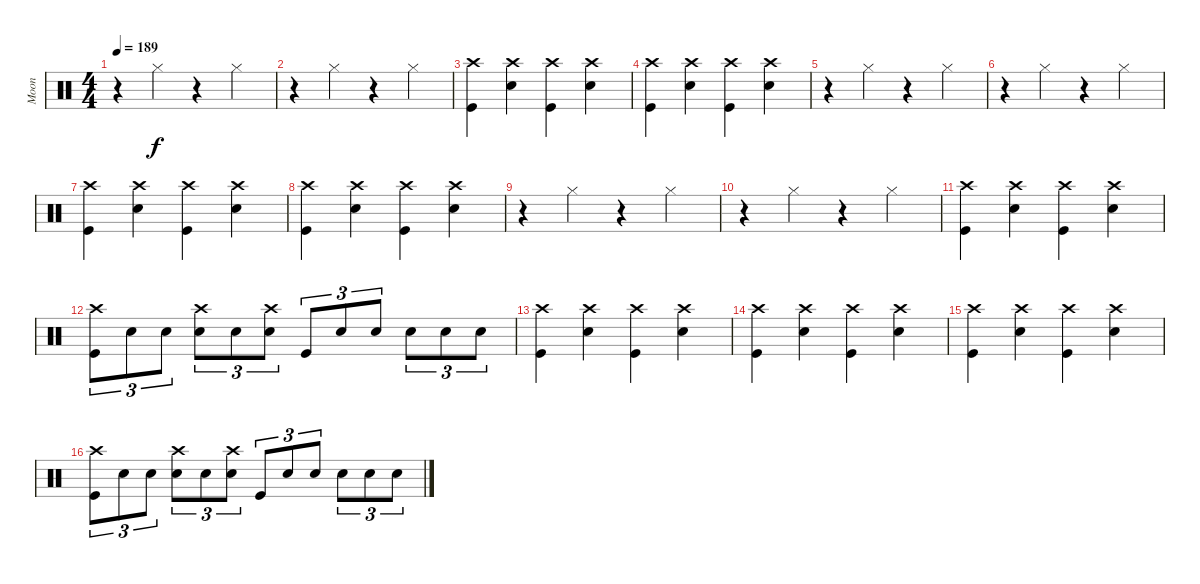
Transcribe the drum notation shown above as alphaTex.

\track ("Moon" "Moon") {instrument percussion}
\staff {score}
\articulation defaults
\ts (4 4)
\tempo 189
\clef neutral
\ks c
r.4{dy f} "Hi-Hat (closed)".4 r.4 "Hi-Hat (closed)".4 |
r.4 "Hi-Hat (closed)".4 r.4 "Hi-Hat (closed)".4 |
("Crash high (hit)" "Kick (hit)").4 ("Crash high (hit)" "Snare (hit) 2").4 ("Crash high (hit)" "Kick (hit)").4 ("Crash high (hit)" "Snare (hit) 2").4 |
("Crash high (hit)" "Kick (hit)").4 ("Crash high (hit)" "Snare (hit) 2").4 ("Crash high (hit)" "Kick (hit)").4 ("Crash high (hit)" "Snare (hit) 2").4 |
r.4 "Hi-Hat (closed)".4 r.4 "Hi-Hat (closed)".4 |
r.4 "Hi-Hat (closed)".4 r.4 "Hi-Hat (closed)".4 |
("Crash high (hit)" "Kick (hit)").4 ("Crash high (hit)" "Snare (hit) 2").4 ("Crash high (hit)" "Kick (hit)").4 ("Crash high (hit)" "Snare (hit) 2").4 |
("Crash high (hit)" "Kick (hit)").4 ("Crash high (hit)" "Snare (hit) 2").4 ("Crash high (hit)" "Kick (hit)").4 ("Crash high (hit)" "Snare (hit) 2").4 |
r.4 "Hi-Hat (closed)".4 r.4 "Hi-Hat (closed)".4 |
r.4 "Hi-Hat (closed)".4 r.4 "Hi-Hat (closed)".4 |
("Crash high (hit)" "Kick (hit)").4 ("Crash high (hit)" "Snare (hit) 2").4 ("Crash high (hit)" "Kick (hit)").4 ("Crash high (hit)" "Snare (hit) 2").4 |
("Crash high (hit)" "Kick (hit)").8{tu (3 2)} "Snare (hit) 2".8{tu (3 2)} "Snare (hit) 2".8{tu (3 2)} ("Crash high (hit)" "Snare (hit) 2").8{tu (3 2)} "Snare (hit) 2".8{tu (3 2)} ("Crash high (hit)" "Snare (hit) 2").8{tu (3 2)} "Kick (hit)".8{tu (3 2)} "Snare (hit) 2".8{tu (3 2)} "Snare (hit) 2".8{tu (3 2)} "Snare (hit) 2".8{tu (3 2)} "Snare (hit) 2".8{tu (3 2)} "Snare (hit) 2".8{tu (3 2)} |
("Crash high (hit)" "Kick (hit)").4 ("Crash high (hit)" "Snare (hit) 2").4 ("Crash high (hit)" "Kick (hit)").4 ("Crash high (hit)" "Snare (hit) 2").4 |
("Crash high (hit)" "Kick (hit)").4 ("Crash high (hit)" "Snare (hit) 2").4 ("Crash high (hit)" "Kick (hit)").4 ("Crash high (hit)" "Snare (hit) 2").4 |
("Crash high (hit)" "Kick (hit)").4 ("Crash high (hit)" "Snare (hit) 2").4 ("Crash high (hit)" "Kick (hit)").4 ("Crash high (hit)" "Snare (hit) 2").4 |
("Crash high (hit)" "Kick (hit)").8{tu (3 2)} "Snare (hit) 2".8{tu (3 2)} "Snare (hit) 2".8{tu (3 2)} ("Crash high (hit)" "Snare (hit) 2").8{tu (3 2)} "Snare (hit) 2".8{tu (3 2)} ("Crash high (hit)" "Snare (hit) 2").8{tu (3 2)} "Kick (hit)".8{tu (3 2)} "Snare (hit) 2".8{tu (3 2)} "Snare (hit) 2".8{tu (3 2)} "Snare (hit) 2".8{tu (3 2)} "Snare (hit) 2".8{tu (3 2)} "Snare (hit) 2".8{tu (3 2)}
